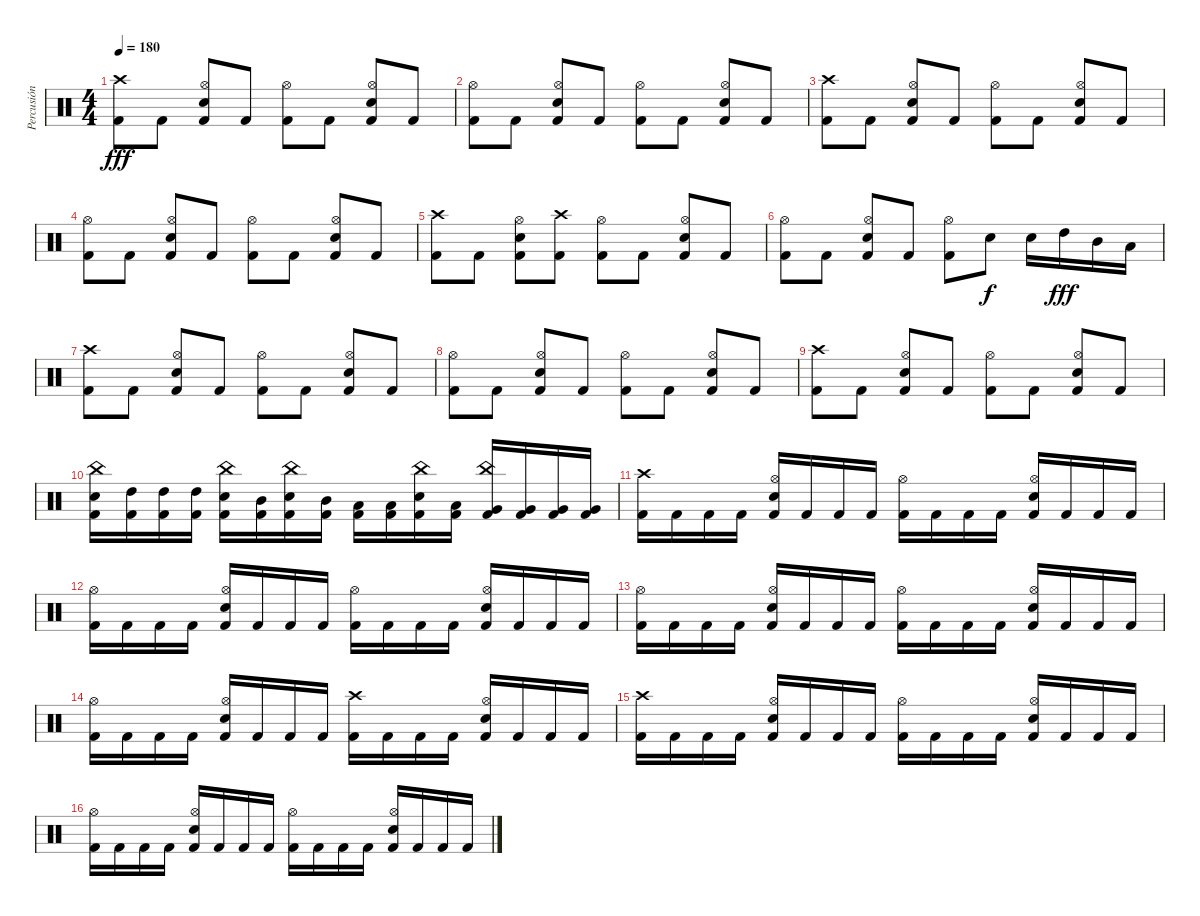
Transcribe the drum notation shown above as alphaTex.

\track ("Percusión" "Percusión") {instrument percussion}
\staff {score}
\articulation defaults
\ts (4 4)
\tempo 180
\clef neutral
\ks c
("Crash high (hit)" "Kick (hit) 2").8{dy fff} "Kick (hit) 2".8 ("Hi-Hat (open)" "Electric Snare (hit)" "Kick (hit) 2").8 "Kick (hit) 2".8 ("Hi-Hat (open)" "Kick (hit) 2").8 "Kick (hit) 2".8 ("Hi-Hat (open)" "Electric Snare (hit)" "Kick (hit) 2").8 "Kick (hit) 2".8 |
("Hi-Hat (open)" "Kick (hit) 2").8 "Kick (hit) 2".8 ("Hi-Hat (open)" "Electric Snare (hit)" "Kick (hit) 2").8 "Kick (hit) 2".8 ("Hi-Hat (open)" "Kick (hit) 2").8 "Kick (hit) 2".8 ("Hi-Hat (open)" "Electric Snare (hit)" "Kick (hit) 2").8 "Kick (hit) 2".8 |
("Crash high (hit)" "Kick (hit) 2").8 "Kick (hit) 2".8 ("Hi-Hat (open)" "Electric Snare (hit)" "Kick (hit) 2").8 "Kick (hit) 2".8 ("Hi-Hat (open)" "Kick (hit) 2").8 "Kick (hit) 2".8 ("Hi-Hat (open)" "Electric Snare (hit)" "Kick (hit) 2").8 "Kick (hit) 2".8 |
("Hi-Hat (open)" "Kick (hit) 2").8 "Kick (hit) 2".8 ("Hi-Hat (open)" "Electric Snare (hit)" "Kick (hit) 2").8 "Kick (hit) 2".8 ("Hi-Hat (open)" "Kick (hit) 2").8 "Kick (hit) 2".8 ("Hi-Hat (open)" "Electric Snare (hit)" "Kick (hit) 2").8 "Kick (hit) 2".8 |
("Crash high (hit)" "Kick (hit) 2").8 "Kick (hit) 2".8 ("Hi-Hat (open)" "Electric Snare (hit)" "Kick (hit) 2").8 ("Crash high (hit)" "Kick (hit) 2").8 ("Hi-Hat (open)" "Kick (hit) 2").8 "Kick (hit) 2".8 ("Hi-Hat (open)" "Electric Snare (hit)" "Kick (hit) 2").8 "Kick (hit) 2".8 |
("Hi-Hat (open)" "Kick (hit) 2").8 "Kick (hit) 2".8 ("Hi-Hat (open)" "Electric Snare (hit)" "Kick (hit) 2").8 "Kick (hit) 2".8 ("Hi-Hat (open)" "Kick (hit) 2").8 "Electric Snare (hit)".8{dy f} "Electric Snare (hit)".16 "High Tom (hit)".16{dy fff} "Mid Tom (hit)".16 "Low Tom (hit)".16 |
("Crash high (hit)" "Kick (hit) 2").8 "Kick (hit) 2".8 ("Hi-Hat (open)" "Electric Snare (hit)" "Kick (hit) 2").8 "Kick (hit) 2".8 ("Hi-Hat (open)" "Kick (hit) 2").8 "Kick (hit) 2".8 ("Hi-Hat (open)" "Electric Snare (hit)" "Kick (hit) 2").8 "Kick (hit) 2".8 |
("Hi-Hat (open)" "Kick (hit) 2").8 "Kick (hit) 2".8 ("Hi-Hat (open)" "Electric Snare (hit)" "Kick (hit) 2").8 "Kick (hit) 2".8 ("Hi-Hat (open)" "Kick (hit) 2").8 "Kick (hit) 2".8 ("Hi-Hat (open)" "Electric Snare (hit)" "Kick (hit) 2").8 "Kick (hit) 2".8 |
("Crash high (hit)" "Kick (hit) 2").8 "Kick (hit) 2".8 ("Hi-Hat (open)" "Electric Snare (hit)" "Kick (hit) 2").8 "Kick (hit) 2".8 ("Hi-Hat (open)" "Kick (hit) 2").8 "Kick (hit) 2".8 ("Hi-Hat (open)" "Electric Snare (hit)" "Kick (hit) 2").8 "Kick (hit) 2".8 |
("China (hit)" "Electric Snare (hit)" "Kick (hit) 2").16 ("High Tom (hit)" "Kick (hit) 2").16 ("High Tom (hit)" "Kick (hit) 2").16 ("High Tom (hit)" "Kick (hit) 2").16 ("China (hit)" "Electric Snare (hit)" "Kick (hit) 2").16 ("Mid Tom (hit)" "Kick (hit) 2").16 ("China (hit)" "Electric Snare (hit)" "Kick (hit) 2").16 ("Mid Tom (hit)" "Kick (hit) 2").16 ("Low Tom (hit)" "Kick (hit) 2").16 ("Low Tom (hit)" "Kick (hit) 2").16 ("China (hit)" "Electric Snare (hit)" "Kick (hit) 2").16 ("Low Tom (hit)" "Kick (hit) 2").16 ("China (hit)" "Very Low Tom (hit)" "Kick (hit) 2").16 ("Very Low Tom (hit)" "Kick (hit) 2").16 ("Very Low Tom (hit)" "Kick (hit) 2").16 ("Very Low Tom (hit)" "Kick (hit) 2").16 |
("Crash high (hit)" "Kick (hit) 2").16 "Kick (hit) 2".16 "Kick (hit) 2".16 "Kick (hit) 2".16 ("Hi-Hat (open)" "Electric Snare (hit)" "Kick (hit) 2").16 "Kick (hit) 2".16 "Kick (hit) 2".16 "Kick (hit) 2".16 ("Hi-Hat (open)" "Kick (hit) 2").16 "Kick (hit) 2".16 "Kick (hit) 2".16 "Kick (hit) 2".16 ("Hi-Hat (open)" "Electric Snare (hit)" "Kick (hit) 2").16 "Kick (hit) 2".16 "Kick (hit) 2".16 "Kick (hit) 2".16 |
("Hi-Hat (open)" "Kick (hit) 2").16 "Kick (hit) 2".16 "Kick (hit) 2".16 "Kick (hit) 2".16 ("Hi-Hat (open)" "Electric Snare (hit)" "Kick (hit) 2").16 "Kick (hit) 2".16 "Kick (hit) 2".16 "Kick (hit) 2".16 ("Hi-Hat (open)" "Kick (hit) 2").16 "Kick (hit) 2".16 "Kick (hit) 2".16 "Kick (hit) 2".16 ("Hi-Hat (open)" "Electric Snare (hit)" "Kick (hit) 2").16 "Kick (hit) 2".16 "Kick (hit) 2".16 "Kick (hit) 2".16 |
("Hi-Hat (open)" "Kick (hit) 2").16 "Kick (hit) 2".16 "Kick (hit) 2".16 "Kick (hit) 2".16 ("Hi-Hat (open)" "Electric Snare (hit)" "Kick (hit) 2").16 "Kick (hit) 2".16 "Kick (hit) 2".16 "Kick (hit) 2".16 ("Hi-Hat (open)" "Kick (hit) 2").16 "Kick (hit) 2".16 "Kick (hit) 2".16 "Kick (hit) 2".16 ("Hi-Hat (open)" "Electric Snare (hit)" "Kick (hit) 2").16 "Kick (hit) 2".16 "Kick (hit) 2".16 "Kick (hit) 2".16 |
("Hi-Hat (open)" "Kick (hit) 2").16 "Kick (hit) 2".16 "Kick (hit) 2".16 "Kick (hit) 2".16 ("Hi-Hat (open)" "Electric Snare (hit)" "Kick (hit) 2").16 "Kick (hit) 2".16 "Kick (hit) 2".16 "Kick (hit) 2".16 ("Crash high (hit)" "Kick (hit) 2").16 "Kick (hit) 2".16 "Kick (hit) 2".16 "Kick (hit) 2".16 ("Hi-Hat (open)" "Electric Snare (hit)" "Kick (hit) 2").16 "Kick (hit) 2".16 "Kick (hit) 2".16 "Kick (hit) 2".16 |
("Crash high (hit)" "Kick (hit) 2").16 "Kick (hit) 2".16 "Kick (hit) 2".16 "Kick (hit) 2".16 ("Hi-Hat (open)" "Electric Snare (hit)" "Kick (hit) 2").16 "Kick (hit) 2".16 "Kick (hit) 2".16 "Kick (hit) 2".16 ("Hi-Hat (open)" "Kick (hit) 2").16 "Kick (hit) 2".16 "Kick (hit) 2".16 "Kick (hit) 2".16 ("Hi-Hat (open)" "Electric Snare (hit)" "Kick (hit) 2").16 "Kick (hit) 2".16 "Kick (hit) 2".16 "Kick (hit) 2".16 |
("Hi-Hat (open)" "Kick (hit) 2").16 "Kick (hit) 2".16 "Kick (hit) 2".16 "Kick (hit) 2".16 ("Hi-Hat (open)" "Electric Snare (hit)" "Kick (hit) 2").16 "Kick (hit) 2".16 "Kick (hit) 2".16 "Kick (hit) 2".16 ("Hi-Hat (open)" "Kick (hit) 2").16 "Kick (hit) 2".16 "Kick (hit) 2".16 "Kick (hit) 2".16 ("Hi-Hat (open)" "Electric Snare (hit)" "Kick (hit) 2").16 "Kick (hit) 2".16 "Kick (hit) 2".16 "Kick (hit) 2".16
